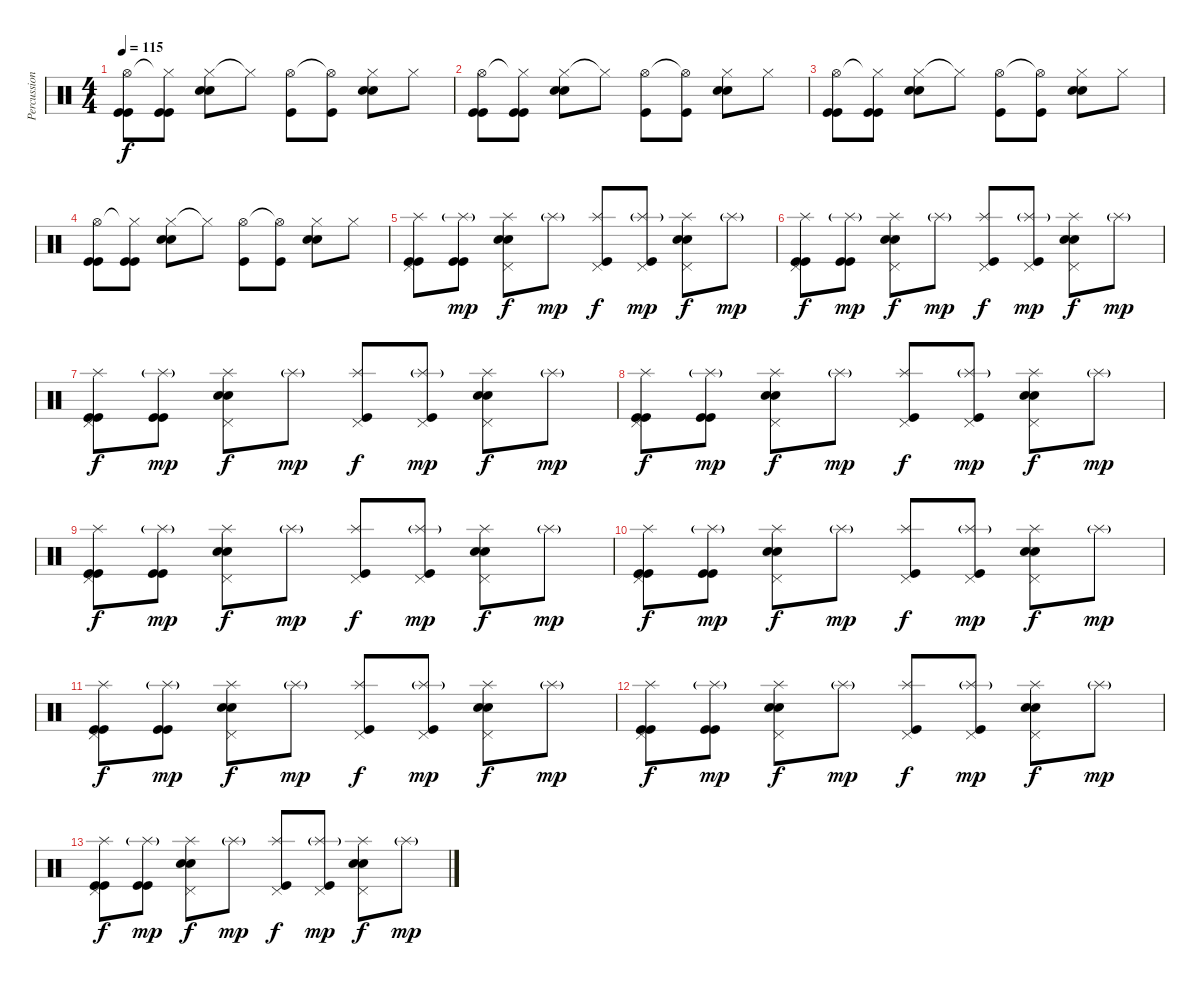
\track ("Percussions" "Percussion") {instrument percussion}
\staff {score}
\articulation defaults
\ts (4 4)
\tempo 115
\clef neutral
\ks c
("Hi-Hat (open)" "Kick (hit)" "Kick (hit)").8{dy f} ("Hi-Hat (closed)"{t} "Kick (hit)" "Kick (hit)").8 ("Hi-Hat (closed)" "Snare (hit) 2" "Snare (hit) 2").8 "Hi-Hat (closed)"{t}.8 ("Hi-Hat (open)" "Kick (hit)").8 ("Hi-Hat (open)"{t} "Kick (hit)").8 ("Hi-Hat (closed)" "Snare (hit) 2" "Snare (hit) 2").8 "Hi-Hat (closed)".8 |
("Hi-Hat (open)" "Kick (hit)" "Kick (hit)").8 ("Hi-Hat (closed)"{t} "Kick (hit)" "Kick (hit)").8 ("Hi-Hat (closed)" "Snare (hit) 2" "Snare (hit) 2").8 "Hi-Hat (closed)"{t}.8 ("Hi-Hat (open)" "Kick (hit)").8 ("Hi-Hat (open)"{t} "Kick (hit)").8 ("Hi-Hat (closed)" "Snare (hit) 2" "Snare (hit) 2").8 "Hi-Hat (closed)".8 |
("Hi-Hat (open)" "Kick (hit)" "Kick (hit)").8 ("Hi-Hat (closed)"{t} "Kick (hit)" "Kick (hit)").8 ("Hi-Hat (closed)" "Snare (hit) 2" "Snare (hit) 2").8 "Hi-Hat (closed)"{t}.8 ("Hi-Hat (open)" "Kick (hit)").8 ("Hi-Hat (open)"{t} "Kick (hit)").8 ("Hi-Hat (closed)" "Snare (hit) 2" "Snare (hit) 2").8 "Hi-Hat (closed)".8 |
("Hi-Hat (open)" "Kick (hit)" "Kick (hit)").8 ("Hi-Hat (closed)"{t} "Kick (hit)" "Kick (hit)").8 ("Hi-Hat (closed)" "Snare (hit) 2" "Snare (hit) 2").8 "Hi-Hat (closed)"{t}.8 ("Hi-Hat (open)" "Kick (hit)").8 ("Hi-Hat (open)"{t} "Kick (hit)").8 ("Hi-Hat (closed)" "Snare (hit) 2" "Snare (hit) 2").8 "Hi-Hat (closed)".8 |
("Splash (hit)" "Pedal Hi-Hat (hit)" "Kick (hit)" "Kick (hit)").8 ("Splash (hit)"{g} "Kick (hit)" "Kick (hit)").8{dy mp} ("Splash (hit)" "Pedal Hi-Hat (hit)" "Snare (hit) 2" "Snare (hit) 2").8{dy f} "Splash (hit)"{g}.8{dy mp} ("Splash (hit)" "Pedal Hi-Hat (hit)" "Kick (hit)").8{dy f} ("Splash (hit)"{g} "Pedal Hi-Hat (hit)" "Kick (hit)").8{dy mp} ("Splash (hit)" "Pedal Hi-Hat (hit)" "Snare (hit) 2" "Snare (hit) 2").8{dy f} "Splash (hit)"{g}.8{dy mp} |
("Splash (hit)" "Pedal Hi-Hat (hit)" "Kick (hit)" "Kick (hit)").8{dy f} ("Splash (hit)"{g} "Kick (hit)" "Kick (hit)").8{dy mp} ("Splash (hit)" "Pedal Hi-Hat (hit)" "Snare (hit) 2" "Snare (hit) 2").8{dy f} "Splash (hit)"{g}.8{dy mp} ("Splash (hit)" "Pedal Hi-Hat (hit)" "Kick (hit)").8{dy f} ("Splash (hit)"{g} "Pedal Hi-Hat (hit)" "Kick (hit)").8{dy mp} ("Splash (hit)" "Pedal Hi-Hat (hit)" "Snare (hit) 2" "Snare (hit) 2").8{dy f} "Splash (hit)"{g}.8{dy mp} |
("Splash (hit)" "Pedal Hi-Hat (hit)" "Kick (hit)" "Kick (hit)").8{dy f} ("Splash (hit)"{g} "Kick (hit)" "Kick (hit)").8{dy mp} ("Splash (hit)" "Pedal Hi-Hat (hit)" "Snare (hit) 2" "Snare (hit) 2").8{dy f} "Splash (hit)"{g}.8{dy mp} ("Splash (hit)" "Pedal Hi-Hat (hit)" "Kick (hit)").8{dy f} ("Splash (hit)"{g} "Pedal Hi-Hat (hit)" "Kick (hit)").8{dy mp} ("Splash (hit)" "Pedal Hi-Hat (hit)" "Snare (hit) 2" "Snare (hit) 2").8{dy f} "Splash (hit)"{g}.8{dy mp} |
("Splash (hit)" "Pedal Hi-Hat (hit)" "Kick (hit)" "Kick (hit)").8{dy f} ("Splash (hit)"{g} "Kick (hit)" "Kick (hit)").8{dy mp} ("Splash (hit)" "Pedal Hi-Hat (hit)" "Snare (hit) 2" "Snare (hit) 2").8{dy f} "Splash (hit)"{g}.8{dy mp} ("Splash (hit)" "Pedal Hi-Hat (hit)" "Kick (hit)").8{dy f} ("Splash (hit)"{g} "Pedal Hi-Hat (hit)" "Kick (hit)").8{dy mp} ("Splash (hit)" "Pedal Hi-Hat (hit)" "Snare (hit) 2" "Snare (hit) 2").8{dy f} "Splash (hit)"{g}.8{dy mp} |
("Splash (hit)" "Pedal Hi-Hat (hit)" "Kick (hit)" "Kick (hit)").8{dy f} ("Splash (hit)"{g} "Kick (hit)" "Kick (hit)").8{dy mp} ("Splash (hit)" "Pedal Hi-Hat (hit)" "Snare (hit) 2" "Snare (hit) 2").8{dy f} "Splash (hit)"{g}.8{dy mp} ("Splash (hit)" "Pedal Hi-Hat (hit)" "Kick (hit)").8{dy f} ("Splash (hit)"{g} "Pedal Hi-Hat (hit)" "Kick (hit)").8{dy mp} ("Splash (hit)" "Pedal Hi-Hat (hit)" "Snare (hit) 2" "Snare (hit) 2").8{dy f} "Splash (hit)"{g}.8{dy mp} |
("Splash (hit)" "Pedal Hi-Hat (hit)" "Kick (hit)" "Kick (hit)").8{dy f} ("Splash (hit)"{g} "Kick (hit)" "Kick (hit)").8{dy mp} ("Splash (hit)" "Pedal Hi-Hat (hit)" "Snare (hit) 2" "Snare (hit) 2").8{dy f} "Splash (hit)"{g}.8{dy mp} ("Splash (hit)" "Pedal Hi-Hat (hit)" "Kick (hit)").8{dy f} ("Splash (hit)"{g} "Pedal Hi-Hat (hit)" "Kick (hit)").8{dy mp} ("Splash (hit)" "Pedal Hi-Hat (hit)" "Snare (hit) 2" "Snare (hit) 2").8{dy f} "Splash (hit)"{g}.8{dy mp} |
("Splash (hit)" "Pedal Hi-Hat (hit)" "Kick (hit)" "Kick (hit)").8{dy f} ("Splash (hit)"{g} "Kick (hit)" "Kick (hit)").8{dy mp} ("Splash (hit)" "Pedal Hi-Hat (hit)" "Snare (hit) 2" "Snare (hit) 2").8{dy f} "Splash (hit)"{g}.8{dy mp} ("Splash (hit)" "Pedal Hi-Hat (hit)" "Kick (hit)").8{dy f} ("Splash (hit)"{g} "Pedal Hi-Hat (hit)" "Kick (hit)").8{dy mp} ("Splash (hit)" "Pedal Hi-Hat (hit)" "Snare (hit) 2" "Snare (hit) 2").8{dy f} "Splash (hit)"{g}.8{dy mp} |
("Splash (hit)" "Pedal Hi-Hat (hit)" "Kick (hit)" "Kick (hit)").8{dy f} ("Splash (hit)"{g} "Kick (hit)" "Kick (hit)").8{dy mp} ("Splash (hit)" "Pedal Hi-Hat (hit)" "Snare (hit) 2" "Snare (hit) 2").8{dy f} "Splash (hit)"{g}.8{dy mp} ("Splash (hit)" "Pedal Hi-Hat (hit)" "Kick (hit)").8{dy f} ("Splash (hit)"{g} "Pedal Hi-Hat (hit)" "Kick (hit)").8{dy mp} ("Splash (hit)" "Pedal Hi-Hat (hit)" "Snare (hit) 2" "Snare (hit) 2").8{dy f} "Splash (hit)"{g}.8{dy mp} |
("Splash (hit)" "Pedal Hi-Hat (hit)" "Kick (hit)" "Kick (hit)").8{dy f} ("Splash (hit)"{g} "Kick (hit)" "Kick (hit)").8{dy mp} ("Splash (hit)" "Pedal Hi-Hat (hit)" "Snare (hit) 2" "Snare (hit) 2").8{dy f} "Splash (hit)"{g}.8{dy mp} ("Splash (hit)" "Pedal Hi-Hat (hit)" "Kick (hit)").8{dy f} ("Splash (hit)"{g} "Pedal Hi-Hat (hit)" "Kick (hit)").8{dy mp} ("Splash (hit)" "Pedal Hi-Hat (hit)" "Snare (hit) 2" "Snare (hit) 2").8{dy f} "Splash (hit)"{g}.8{dy mp}
